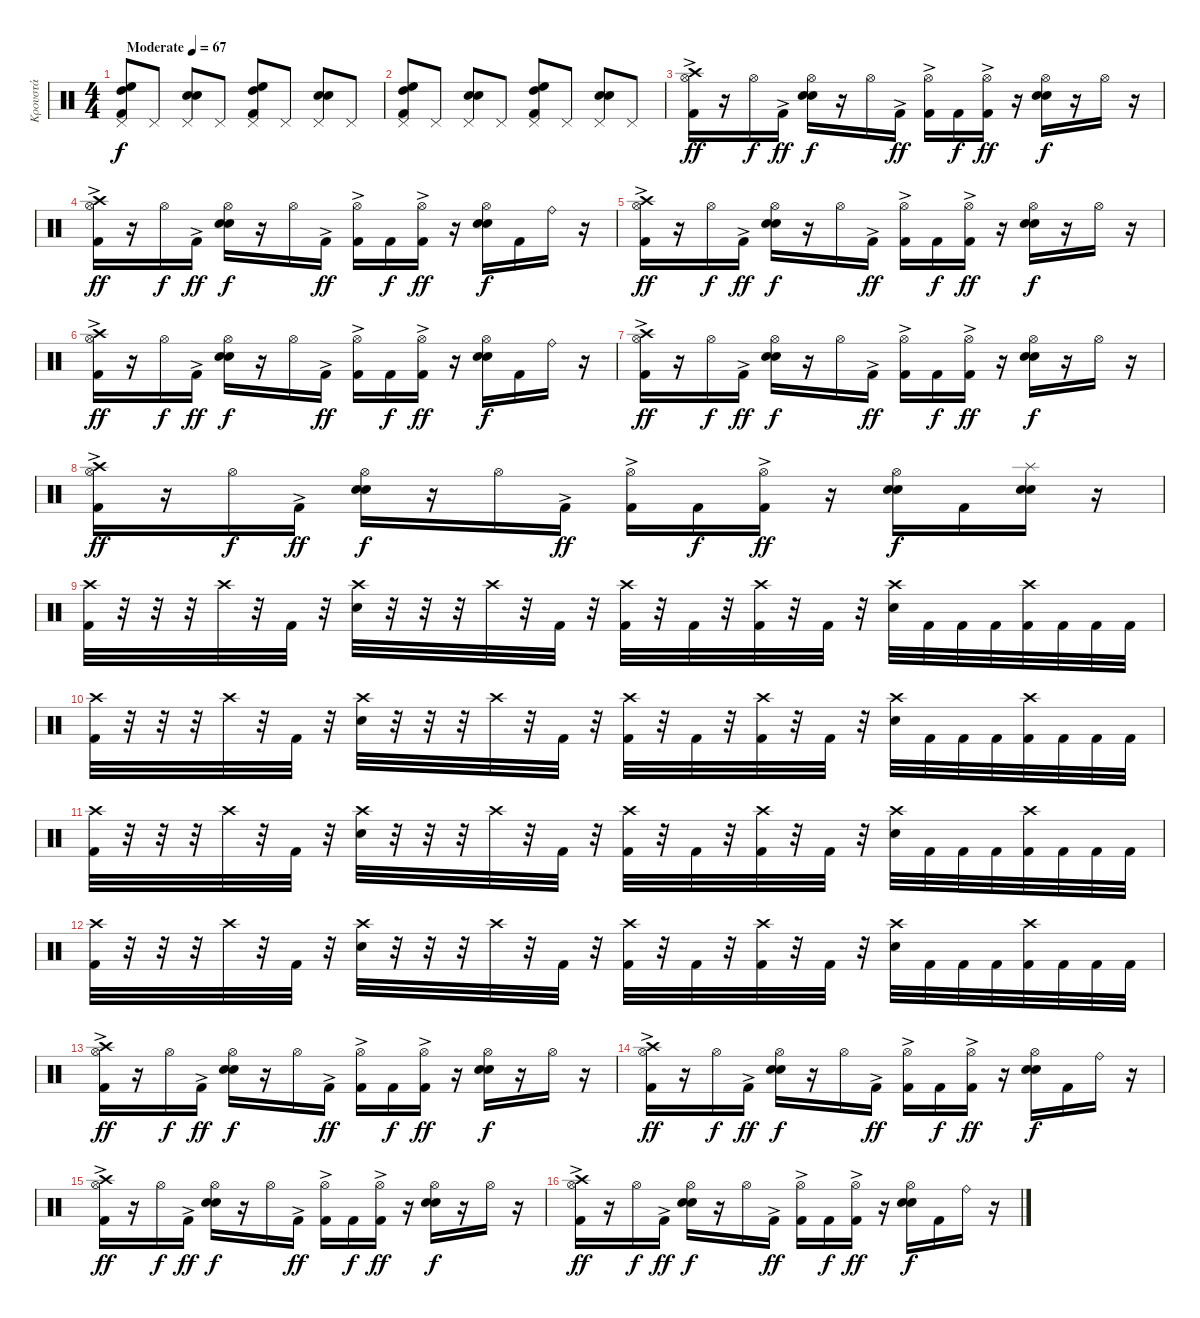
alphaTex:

\track ("Κρουστά" "Κρουστά") {instrument percussion}
\staff {score}
\articulation defaults
\ts (4 4)
\tempo (67 "Moderate")
\clef neutral
\ks c
("Pedal Hi-Hat (hit)" "High Tom (hit)" "High Floor Tom (hit)" "Kick (hit) 2").8{dy f} "Pedal Hi-Hat (hit)".8 ("Pedal Hi-Hat (hit)" "Hand Clap (hit)" "Electric Snare (hit)").8 "Pedal Hi-Hat (hit)".8 ("Pedal Hi-Hat (hit)" "High Tom (hit)" "High Floor Tom (hit)" "Kick (hit) 2").8 "Pedal Hi-Hat (hit)".8 ("Pedal Hi-Hat (hit)" "Hand Clap (hit)" "Electric Snare (hit)").8 "Pedal Hi-Hat (hit)".8 |
("Pedal Hi-Hat (hit)" "High Tom (hit)" "High Floor Tom (hit)" "Kick (hit) 2").8 "Pedal Hi-Hat (hit)".8 ("Pedal Hi-Hat (hit)" "Hand Clap (hit)" "Electric Snare (hit)").8 "Pedal Hi-Hat (hit)".8 ("Pedal Hi-Hat (hit)" "High Tom (hit)" "High Floor Tom (hit)" "Kick (hit) 2").8 "Pedal Hi-Hat (hit)".8 ("Pedal Hi-Hat (hit)" "Hand Clap (hit)" "Electric Snare (hit)").8 "Pedal Hi-Hat (hit)".8 |
("Hi-Hat (open)" "Crash high (hit)" "Kick (hit) 2"{ac}).16{dy ff} r.16 "Hi-Hat (open)".16{dy f} "Kick (hit) 2"{ac}.16{dy ff} ("Hi-Hat (open)" "Hand Clap (hit)" "Electric Snare (hit)").16{dy f} r.16 "Hi-Hat (open)".16 "Kick (hit) 2"{ac}.16{dy ff} ("Hi-Hat (open)" "Kick (hit) 2"{ac}).16 "Kick (hit) 2".16{dy f} ("Hi-Hat (open)" "Kick (hit) 2"{ac}).16{dy ff} r.16 ("Hi-Hat (open)" "Electric Snare (hit)" "Hand Clap (hit)").16{dy f} r.16 "Hi-Hat (open)".16 r.16 |
("Hi-Hat (open)" "Crash high (hit)" "Kick (hit) 2"{ac}).16{dy ff} r.16 "Hi-Hat (open)".16{dy f} "Kick (hit) 2"{ac}.16{dy ff} ("Hi-Hat (open)" "Hand Clap (hit)" "Electric Snare (hit)").16{dy f} r.16 "Hi-Hat (open)".16 "Kick (hit) 2"{ac}.16{dy ff} ("Hi-Hat (open)" "Kick (hit) 2"{ac}).16 "Kick (hit) 2".16{dy f} ("Hi-Hat (open)" "Kick (hit) 2"{ac}).16{dy ff} r.16 ("Hi-Hat (open)" "Electric Snare (hit)" "Hand Clap (hit)").16{dy f} "Kick (hit) 2".16 "Ride (bell)".16 r.16 |
("Hi-Hat (open)" "Crash high (hit)" "Kick (hit) 2"{ac}).16{dy ff} r.16 "Hi-Hat (open)".16{dy f} "Kick (hit) 2"{ac}.16{dy ff} ("Hi-Hat (open)" "Hand Clap (hit)" "Electric Snare (hit)").16{dy f} r.16 "Hi-Hat (open)".16 "Kick (hit) 2"{ac}.16{dy ff} ("Hi-Hat (open)" "Kick (hit) 2"{ac}).16 "Kick (hit) 2".16{dy f} ("Hi-Hat (open)" "Kick (hit) 2"{ac}).16{dy ff} r.16 ("Hi-Hat (open)" "Electric Snare (hit)" "Hand Clap (hit)").16{dy f} r.16 "Hi-Hat (open)".16 r.16 |
("Hi-Hat (open)" "Crash high (hit)" "Kick (hit) 2"{ac}).16{dy ff} r.16 "Hi-Hat (open)".16{dy f} "Kick (hit) 2"{ac}.16{dy ff} ("Hi-Hat (open)" "Hand Clap (hit)" "Electric Snare (hit)").16{dy f} r.16 "Hi-Hat (open)".16 "Kick (hit) 2"{ac}.16{dy ff} ("Hi-Hat (open)" "Kick (hit) 2"{ac}).16 "Kick (hit) 2".16{dy f} ("Hi-Hat (open)" "Kick (hit) 2"{ac}).16{dy ff} r.16 ("Hi-Hat (open)" "Electric Snare (hit)" "Hand Clap (hit)").16{dy f} "Kick (hit) 2".16 "Ride (bell)".16 r.16 |
("Hi-Hat (open)" "Crash high (hit)" "Kick (hit) 2"{ac}).16{dy ff} r.16 "Hi-Hat (open)".16{dy f} "Kick (hit) 2"{ac}.16{dy ff} ("Hi-Hat (open)" "Hand Clap (hit)" "Electric Snare (hit)").16{dy f} r.16 "Hi-Hat (open)".16 "Kick (hit) 2"{ac}.16{dy ff} ("Hi-Hat (open)" "Kick (hit) 2"{ac}).16 "Kick (hit) 2".16{dy f} ("Hi-Hat (open)" "Kick (hit) 2"{ac}).16{dy ff} r.16 ("Hi-Hat (open)" "Electric Snare (hit)" "Hand Clap (hit)").16{dy f} r.16 "Hi-Hat (open)".16 r.16 |
("Hi-Hat (open)" "Crash high (hit)" "Kick (hit) 2"{ac}).16{dy ff} r.16 "Hi-Hat (open)".16{dy f} "Kick (hit) 2"{ac}.16{dy ff} ("Hi-Hat (open)" "Hand Clap (hit)" "Electric Snare (hit)").16{dy f} r.16 "Hi-Hat (open)".16 "Kick (hit) 2"{ac}.16{dy ff} ("Hi-Hat (open)" "Kick (hit) 2"{ac}).16 "Kick (hit) 2".16{dy f} ("Hi-Hat (open)" "Kick (hit) 2"{ac}).16{dy ff} r.16 ("Hi-Hat (open)" "Electric Snare (hit)" "Hand Clap (hit)").16{dy f} "Kick (hit) 2".16 ("Splash (hit)" "Hand Clap (hit)" "Electric Snare (hit)").16 r.16 |
("Crash high (hit)" "Kick (hit) 2").32 r.32 r.32 r.32 "Crash high (hit)".32 r.32 "Kick (hit) 2".32 r.32 ("Crash high (hit)" "Electric Snare (hit)").32 r.32 r.32 r.32 "Crash high (hit)".32 r.32 "Kick (hit) 2".32 r.32 ("Crash high (hit)" "Kick (hit) 2").32 r.32 "Kick (hit) 2".32 r.32 ("Crash high (hit)" "Kick (hit) 2").32 r.32 "Kick (hit) 2".32 r.32 ("Crash high (hit)" "Electric Snare (hit)").32 "Kick (hit) 2".32 "Kick (hit) 2".32 "Kick (hit) 2".32 ("Crash high (hit)" "Kick (hit) 2").32 "Kick (hit) 2".32 "Kick (hit) 2".32 "Kick (hit) 2".32 |
("Crash high (hit)" "Kick (hit) 2").32 r.32 r.32 r.32 "Crash high (hit)".32 r.32 "Kick (hit) 2".32 r.32 ("Crash high (hit)" "Electric Snare (hit)").32 r.32 r.32 r.32 "Crash high (hit)".32 r.32 "Kick (hit) 2".32 r.32 ("Crash high (hit)" "Kick (hit) 2").32 r.32 "Kick (hit) 2".32 r.32 ("Crash high (hit)" "Kick (hit) 2").32 r.32 "Kick (hit) 2".32 r.32 ("Crash high (hit)" "Electric Snare (hit)").32 "Kick (hit) 2".32 "Kick (hit) 2".32 "Kick (hit) 2".32 ("Crash high (hit)" "Kick (hit) 2").32 "Kick (hit) 2".32 "Kick (hit) 2".32 "Kick (hit) 2".32 |
("Crash high (hit)" "Kick (hit) 2").32 r.32 r.32 r.32 "Crash high (hit)".32 r.32 "Kick (hit) 2".32 r.32 ("Crash high (hit)" "Electric Snare (hit)").32 r.32 r.32 r.32 "Crash high (hit)".32 r.32 "Kick (hit) 2".32 r.32 ("Crash high (hit)" "Kick (hit) 2").32 r.32 "Kick (hit) 2".32 r.32 ("Crash high (hit)" "Kick (hit) 2").32 r.32 "Kick (hit) 2".32 r.32 ("Crash high (hit)" "Electric Snare (hit)").32 "Kick (hit) 2".32 "Kick (hit) 2".32 "Kick (hit) 2".32 ("Crash high (hit)" "Kick (hit) 2").32 "Kick (hit) 2".32 "Kick (hit) 2".32 "Kick (hit) 2".32 |
("Crash high (hit)" "Kick (hit) 2").32 r.32 r.32 r.32 "Crash high (hit)".32 r.32 "Kick (hit) 2".32 r.32 ("Crash high (hit)" "Electric Snare (hit)").32 r.32 r.32 r.32 "Crash high (hit)".32 r.32 "Kick (hit) 2".32 r.32 ("Crash high (hit)" "Kick (hit) 2").32 r.32 "Kick (hit) 2".32 r.32 ("Crash high (hit)" "Kick (hit) 2").32 r.32 "Kick (hit) 2".32 r.32 ("Crash high (hit)" "Electric Snare (hit)").32 "Kick (hit) 2".32 "Kick (hit) 2".32 "Kick (hit) 2".32 ("Crash high (hit)" "Kick (hit) 2").32 "Kick (hit) 2".32 "Kick (hit) 2".32 "Kick (hit) 2".32 |
("Hi-Hat (open)" "Crash high (hit)" "Kick (hit) 2"{ac}).16{dy ff} r.16 "Hi-Hat (open)".16{dy f} "Kick (hit) 2"{ac}.16{dy ff} ("Hi-Hat (open)" "Hand Clap (hit)" "Electric Snare (hit)").16{dy f} r.16 "Hi-Hat (open)".16 "Kick (hit) 2"{ac}.16{dy ff} ("Hi-Hat (open)" "Kick (hit) 2"{ac}).16 "Kick (hit) 2".16{dy f} ("Hi-Hat (open)" "Kick (hit) 2"{ac}).16{dy ff} r.16 ("Hi-Hat (open)" "Electric Snare (hit)" "Hand Clap (hit)").16{dy f} r.16 "Hi-Hat (open)".16 r.16 |
("Hi-Hat (open)" "Crash high (hit)" "Kick (hit) 2"{ac}).16{dy ff} r.16 "Hi-Hat (open)".16{dy f} "Kick (hit) 2"{ac}.16{dy ff} ("Hi-Hat (open)" "Hand Clap (hit)" "Electric Snare (hit)").16{dy f} r.16 "Hi-Hat (open)".16 "Kick (hit) 2"{ac}.16{dy ff} ("Hi-Hat (open)" "Kick (hit) 2"{ac}).16 "Kick (hit) 2".16{dy f} ("Hi-Hat (open)" "Kick (hit) 2"{ac}).16{dy ff} r.16 ("Hi-Hat (open)" "Electric Snare (hit)" "Hand Clap (hit)").16{dy f} "Kick (hit) 2".16 "Ride (bell)".16 r.16 |
("Hi-Hat (open)" "Crash high (hit)" "Kick (hit) 2"{ac}).16{dy ff} r.16 "Hi-Hat (open)".16{dy f} "Kick (hit) 2"{ac}.16{dy ff} ("Hi-Hat (open)" "Hand Clap (hit)" "Electric Snare (hit)").16{dy f} r.16 "Hi-Hat (open)".16 "Kick (hit) 2"{ac}.16{dy ff} ("Hi-Hat (open)" "Kick (hit) 2"{ac}).16 "Kick (hit) 2".16{dy f} ("Hi-Hat (open)" "Kick (hit) 2"{ac}).16{dy ff} r.16 ("Hi-Hat (open)" "Electric Snare (hit)" "Hand Clap (hit)").16{dy f} r.16 "Hi-Hat (open)".16 r.16 |
("Hi-Hat (open)" "Crash high (hit)" "Kick (hit) 2"{ac}).16{dy ff} r.16 "Hi-Hat (open)".16{dy f} "Kick (hit) 2"{ac}.16{dy ff} ("Hi-Hat (open)" "Hand Clap (hit)" "Electric Snare (hit)").16{dy f} r.16 "Hi-Hat (open)".16 "Kick (hit) 2"{ac}.16{dy ff} ("Hi-Hat (open)" "Kick (hit) 2"{ac}).16 "Kick (hit) 2".16{dy f} ("Hi-Hat (open)" "Kick (hit) 2"{ac}).16{dy ff} r.16 ("Hi-Hat (open)" "Electric Snare (hit)" "Hand Clap (hit)").16{dy f} "Kick (hit) 2".16 "Ride (bell)".16 r.16
